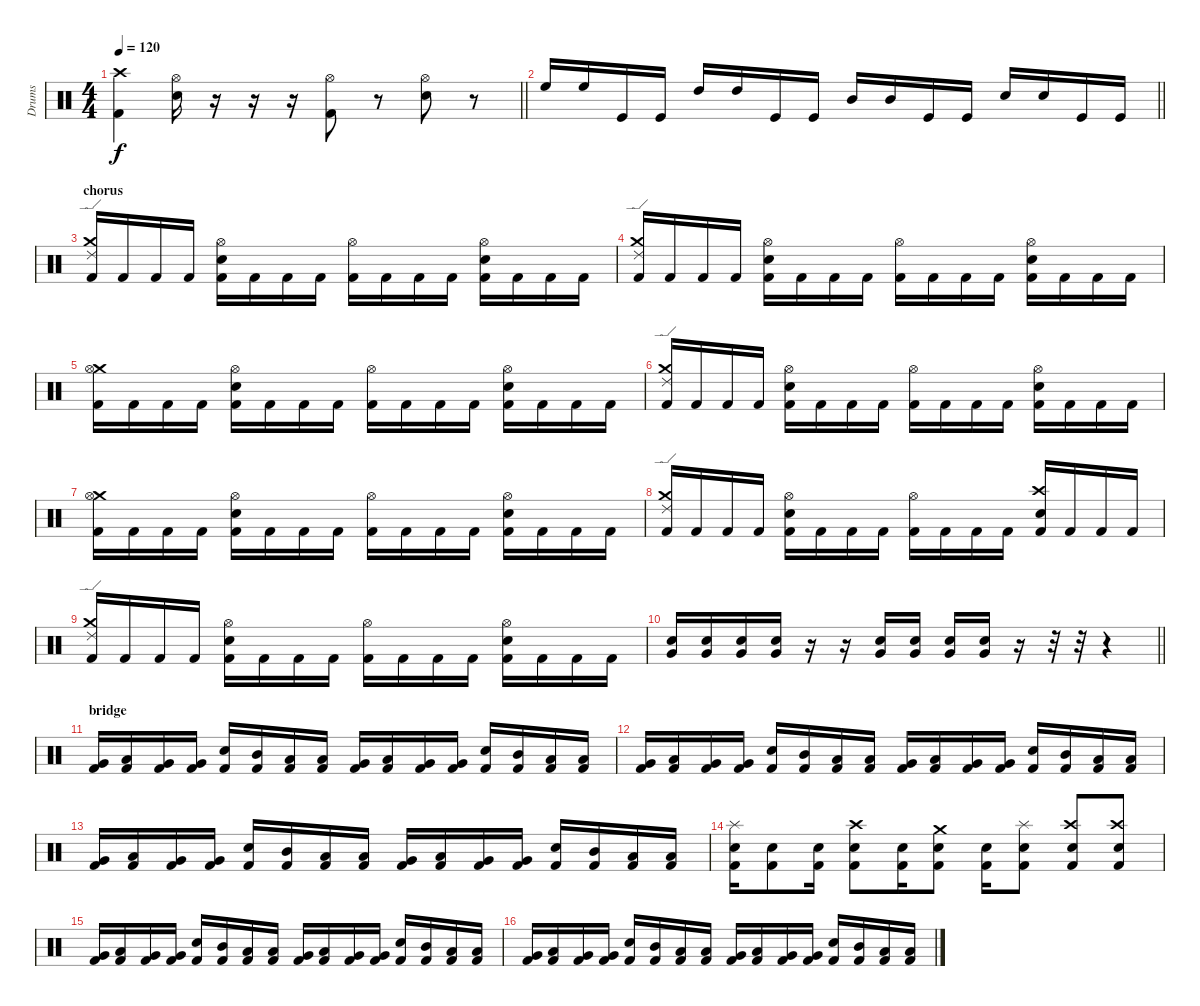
\track ("Drums" "Drums") {instrument percussion}
\staff {score}
\articulation defaults
\ts (4 4)
\tempo 120
\clef neutral
\barLineRight lightlight
\ks c
("Kick (hit) 2" "Crash high (hit)").4{dy f} ("Electric Snare (hit)" "Hi-Hat (open)").16 r.16 r.16 r.16 ("Kick (hit) 2" "Hi-Hat (open)").8 r.8 ("Electric Snare (hit)" "Hi-Hat (open)").8 r.8 |
\barLineRight lightlight "High Floor Tom (hit)".16 "High Floor Tom (hit)".16 "Kick (hit)".16 "Kick (hit)".16 "High Tom (hit)".16 "High Tom (hit)".16 "Kick (hit)".16 "Kick (hit)".16 "Mid Tom (hit)".16 "Mid Tom (hit)".16 "Kick (hit)".16 "Kick (hit)".16 "Snare (hit) 2".16 "Snare (hit) 2".16 "Kick (hit)".16 "Kick (hit)".16
|
\section ("" "chorus")
("Crash medium (hit)" "Ride (edge) 2" "Kick (hit) 2").16 "Kick (hit) 2".16 "Kick (hit) 2".16 "Kick (hit) 2".16 ("Hi-Hat (open)" "Electric Snare (hit)" "Kick (hit) 2").16 "Kick (hit) 2".16 "Kick (hit) 2".16 "Kick (hit) 2".16 ("Hi-Hat (open)" "Kick (hit) 2").16 "Kick (hit) 2".16 "Kick (hit) 2".16 "Kick (hit) 2".16 ("Hi-Hat (open)" "Electric Snare (hit)" "Kick (hit) 2").16 "Kick (hit) 2".16 "Kick (hit) 2".16 "Kick (hit) 2".16 |
("Crash medium (hit)" "Ride (edge) 2" "Kick (hit) 2").16 "Kick (hit) 2".16 "Kick (hit) 2".16 "Kick (hit) 2".16 ("Hi-Hat (open)" "Electric Snare (hit)" "Kick (hit) 2").16 "Kick (hit) 2".16 "Kick (hit) 2".16 "Kick (hit) 2".16 ("Hi-Hat (open)" "Kick (hit) 2").16 "Kick (hit) 2".16 "Kick (hit) 2".16 "Kick (hit) 2".16 ("Hi-Hat (open)" "Electric Snare (hit)" "Kick (hit) 2").16 "Kick (hit) 2".16 "Kick (hit) 2".16 "Kick (hit) 2".16 |
("Crash medium (hit)" "Hi-Hat (open)" "Kick (hit) 2").16 "Kick (hit) 2".16 "Kick (hit) 2".16 "Kick (hit) 2".16 ("Hi-Hat (open)" "Electric Snare (hit)" "Kick (hit) 2").16 "Kick (hit) 2".16 "Kick (hit) 2".16 "Kick (hit) 2".16 ("Hi-Hat (open)" "Kick (hit) 2").16 "Kick (hit) 2".16 "Kick (hit) 2".16 "Kick (hit) 2".16 ("Hi-Hat (open)" "Electric Snare (hit)" "Kick (hit) 2").16 "Kick (hit) 2".16 "Kick (hit) 2".16 "Kick (hit) 2".16 |
("Crash medium (hit)" "Ride (edge) 2" "Kick (hit) 2").16 "Kick (hit) 2".16 "Kick (hit) 2".16 "Kick (hit) 2".16 ("Hi-Hat (open)" "Electric Snare (hit)" "Kick (hit) 2").16 "Kick (hit) 2".16 "Kick (hit) 2".16 "Kick (hit) 2".16 ("Hi-Hat (open)" "Kick (hit) 2").16 "Kick (hit) 2".16 "Kick (hit) 2".16 "Kick (hit) 2".16 ("Hi-Hat (open)" "Electric Snare (hit)" "Kick (hit) 2").16 "Kick (hit) 2".16 "Kick (hit) 2".16 "Kick (hit) 2".16 |
("Crash medium (hit)" "Hi-Hat (open)" "Kick (hit) 2").16 "Kick (hit) 2".16 "Kick (hit) 2".16 "Kick (hit) 2".16 ("Hi-Hat (open)" "Electric Snare (hit)" "Kick (hit) 2").16 "Kick (hit) 2".16 "Kick (hit) 2".16 "Kick (hit) 2".16 ("Hi-Hat (open)" "Kick (hit) 2").16 "Kick (hit) 2".16 "Kick (hit) 2".16 "Kick (hit) 2".16 ("Hi-Hat (open)" "Electric Snare (hit)" "Kick (hit) 2").16 "Kick (hit) 2".16 "Kick (hit) 2".16 "Kick (hit) 2".16 |
("Crash medium (hit)" "Ride (edge) 2" "Kick (hit) 2").16 "Kick (hit) 2".16 "Kick (hit) 2".16 "Kick (hit) 2".16 ("Hi-Hat (open)" "Electric Snare (hit)" "Kick (hit) 2").16 "Kick (hit) 2".16 "Kick (hit) 2".16 "Kick (hit) 2".16 ("Hi-Hat (open)" "Kick (hit) 2").16 "Kick (hit) 2".16 "Kick (hit) 2".16 "Kick (hit) 2".16 ("Crash high (hit)" "Electric Snare (hit)" "Kick (hit) 2").16 "Kick (hit) 2".16 "Kick (hit) 2".16 "Kick (hit) 2".16 |
("Crash medium (hit)" "Ride (edge) 2" "Kick (hit) 2").16 "Kick (hit) 2".16 "Kick (hit) 2".16 "Kick (hit) 2".16 ("Hi-Hat (open)" "Electric Snare (hit)" "Kick (hit) 2").16 "Kick (hit) 2".16 "Kick (hit) 2".16 "Kick (hit) 2".16 ("Hi-Hat (open)" "Kick (hit) 2").16 "Kick (hit) 2".16 "Kick (hit) 2".16 "Kick (hit) 2".16 ("Hi-Hat (open)" "Electric Snare (hit)" "Kick (hit) 2").16 "Kick (hit) 2".16 "Kick (hit) 2".16 "Kick (hit) 2".16 |
\barLineRight lightlight
("Electric Snare (hit)" "Very Low Tom (hit)").16 ("Electric Snare (hit)" "Very Low Tom (hit)").16 ("Electric Snare (hit)" "Very Low Tom (hit)").16 ("Electric Snare (hit)" "Very Low Tom (hit)").16 r.16 r.16 ("Electric Snare (hit)" "Very Low Tom (hit)").16 ("Electric Snare (hit)" "Very Low Tom (hit)").16 ("Electric Snare (hit)" "Very Low Tom (hit)").16 ("Electric Snare (hit)" "Very Low Tom (hit)").16 r.16 r.32 r.32 r.4 |
\section ("" "bridge")
("Very Low Tom (hit)" "Kick (hit) 2").16 ("Low Tom (hit)" "Kick (hit) 2").16 ("Very Low Tom (hit)" "Kick (hit) 2").16 ("Very Low Tom (hit)" "Kick (hit) 2").16 ("Snare (hit) 2" "Kick (hit) 2").16 ("Mid Tom (hit)" "Kick (hit) 2").16 ("Low Tom (hit)" "Kick (hit) 2").16 ("Low Tom (hit)" "Kick (hit) 2").16 ("Very Low Tom (hit)" "Kick (hit) 2").16 ("Low Tom (hit)" "Kick (hit) 2").16 ("Very Low Tom (hit)" "Kick (hit) 2").16 ("Very Low Tom (hit)" "Kick (hit) 2").16 ("Snare (hit) 2" "Kick (hit) 2").16 ("Mid Tom (hit)" "Kick (hit) 2").16 ("Low Tom (hit)" "Kick (hit) 2").16 ("Low Tom (hit)" "Kick (hit) 2").16 |
("Very Low Tom (hit)" "Kick (hit) 2").16 ("Low Tom (hit)" "Kick (hit) 2").16 ("Very Low Tom (hit)" "Kick (hit) 2").16 ("Very Low Tom (hit)" "Kick (hit) 2").16 ("Snare (hit) 2" "Kick (hit) 2").16 ("Mid Tom (hit)" "Kick (hit) 2").16 ("Low Tom (hit)" "Kick (hit) 2").16 ("Low Tom (hit)" "Kick (hit) 2").16 ("Very Low Tom (hit)" "Kick (hit) 2").16 ("Low Tom (hit)" "Kick (hit) 2").16 ("Very Low Tom (hit)" "Kick (hit) 2").16 ("Very Low Tom (hit)" "Kick (hit) 2").16 ("Snare (hit) 2" "Kick (hit) 2").16 ("Mid Tom (hit)" "Kick (hit) 2").16 ("Low Tom (hit)" "Kick (hit) 2").16 ("Low Tom (hit)" "Kick (hit) 2").16 |
("Very Low Tom (hit)" "Kick (hit) 2").16 ("Low Tom (hit)" "Kick (hit) 2").16 ("Very Low Tom (hit)" "Kick (hit) 2").16 ("Very Low Tom (hit)" "Kick (hit) 2").16 ("Snare (hit) 2" "Kick (hit) 2").16 ("Mid Tom (hit)" "Kick (hit) 2").16 ("Low Tom (hit)" "Kick (hit) 2").16 ("Low Tom (hit)" "Kick (hit) 2").16 ("Very Low Tom (hit)" "Kick (hit) 2").16 ("Low Tom (hit)" "Kick (hit) 2").16 ("Very Low Tom (hit)" "Kick (hit) 2").16 ("Very Low Tom (hit)" "Kick (hit) 2").16 ("Snare (hit) 2" "Kick (hit) 2").16 ("Mid Tom (hit)" "Kick (hit) 2").16 ("Low Tom (hit)" "Kick (hit) 2").16 ("Low Tom (hit)" "Kick (hit) 2").16 |
("Electric Snare (hit)" "Kick (hit) 2" "Splash (hit)").16 ("Electric Snare (hit)" "Kick (hit) 2").8 ("Electric Snare (hit)" "Kick (hit) 2").16 ("Electric Snare (hit)" "Kick (hit) 2" "Crash high (hit)").8 ("Electric Snare (hit)" "Kick (hit) 2").16 ("Electric Snare (hit)" "Kick (hit) 2" "Crash medium (hit)").8 ("Electric Snare (hit)" "Kick (hit) 2").16 ("Electric Snare (hit)" "Kick (hit) 2" "Splash (hit)").8 ("Electric Snare (hit)" "Kick (hit) 2" "Crash high (hit)").8 ("Electric Snare (hit)" "Kick (hit) 2" "Crash high (hit)").8 |
("Very Low Tom (hit)" "Kick (hit) 2").16 ("Low Tom (hit)" "Kick (hit) 2").16 ("Very Low Tom (hit)" "Kick (hit) 2").16 ("Very Low Tom (hit)" "Kick (hit) 2").16 ("Snare (hit) 2" "Kick (hit) 2").16 ("Mid Tom (hit)" "Kick (hit) 2").16 ("Low Tom (hit)" "Kick (hit) 2").16 ("Low Tom (hit)" "Kick (hit) 2").16 ("Very Low Tom (hit)" "Kick (hit) 2").16 ("Low Tom (hit)" "Kick (hit) 2").16 ("Very Low Tom (hit)" "Kick (hit) 2").16 ("Very Low Tom (hit)" "Kick (hit) 2").16 ("Snare (hit) 2" "Kick (hit) 2").16 ("Mid Tom (hit)" "Kick (hit) 2").16 ("Low Tom (hit)" "Kick (hit) 2").16 ("Low Tom (hit)" "Kick (hit) 2").16 |
("Very Low Tom (hit)" "Kick (hit) 2").16 ("Low Tom (hit)" "Kick (hit) 2").16 ("Very Low Tom (hit)" "Kick (hit) 2").16 ("Very Low Tom (hit)" "Kick (hit) 2").16 ("Snare (hit) 2" "Kick (hit) 2").16 ("Mid Tom (hit)" "Kick (hit) 2").16 ("Low Tom (hit)" "Kick (hit) 2").16 ("Low Tom (hit)" "Kick (hit) 2").16 ("Very Low Tom (hit)" "Kick (hit) 2").16 ("Low Tom (hit)" "Kick (hit) 2").16 ("Very Low Tom (hit)" "Kick (hit) 2").16 ("Very Low Tom (hit)" "Kick (hit) 2").16 ("Snare (hit) 2" "Kick (hit) 2").16 ("Mid Tom (hit)" "Kick (hit) 2").16 ("Low Tom (hit)" "Kick (hit) 2").16 ("Low Tom (hit)" "Kick (hit) 2").16
